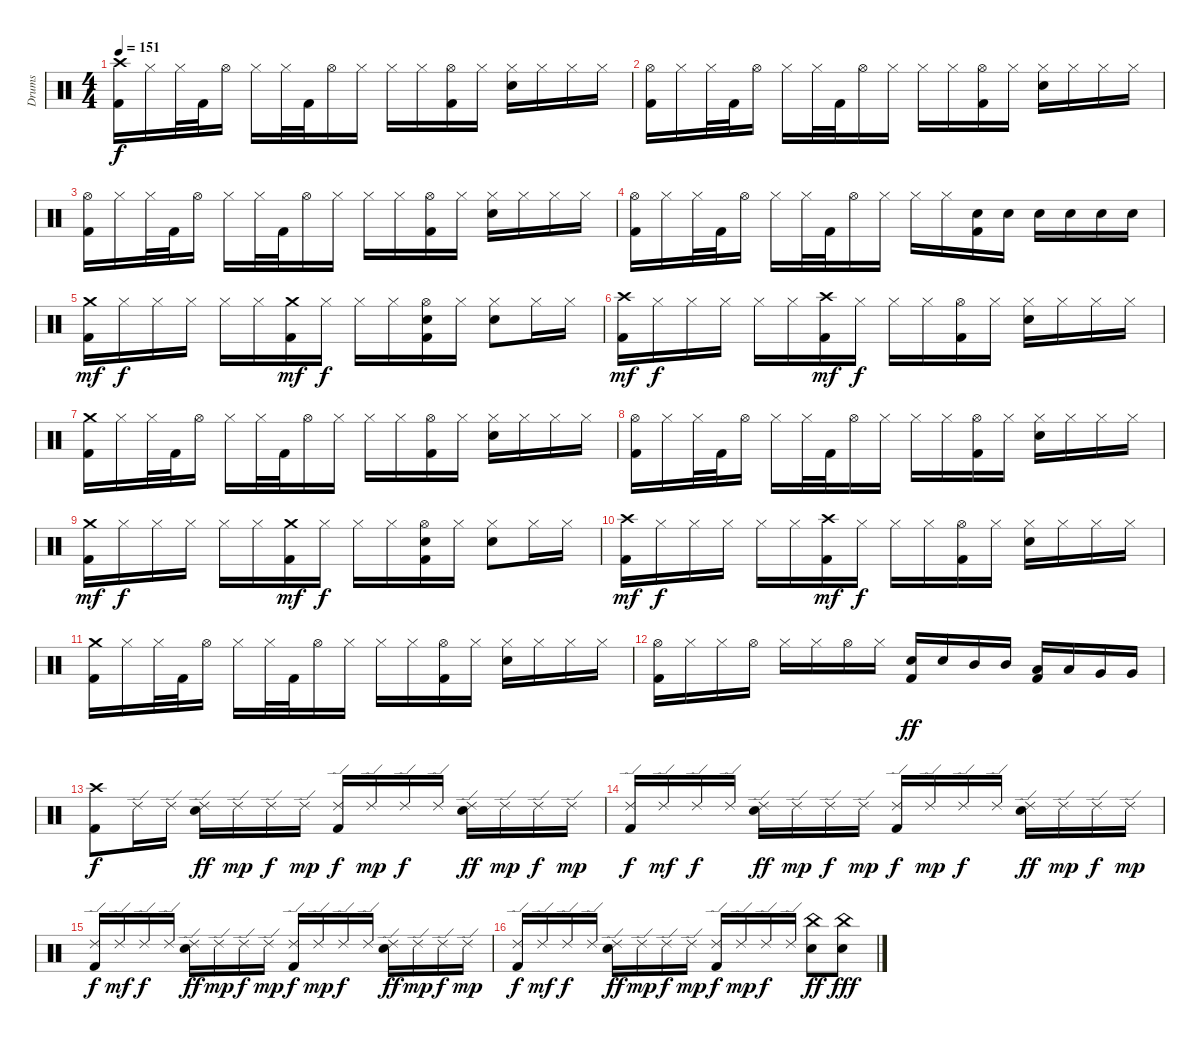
\track ("Drums" "Drums") {instrument percussion}
\staff {score}
\articulation defaults
\ts (4 4)
\tempo 151
\clef neutral
\ks c
("Crash high (hit)" "Kick (hit) 2").16{dy f} "Hi-Hat (closed)".16 "Hi-Hat (closed)".32 "Kick (hit) 2".32 "Hi-Hat (open)".16 "Hi-Hat (closed)".16 "Hi-Hat (closed)".32 "Kick (hit) 2".32 "Hi-Hat (open)".16 "Hi-Hat (closed)".16 "Hi-Hat (closed)".16 "Hi-Hat (closed)".16 ("Hi-Hat (open)" "Kick (hit) 2").16 "Hi-Hat (closed)".16 ("Electric Snare (hit)" "Hi-Hat (closed)").16 "Hi-Hat (closed)".16 "Hi-Hat (closed)".16 "Hi-Hat (closed)".16 |
("Hi-Hat (open)" "Kick (hit) 2").16 "Hi-Hat (closed)".16 "Hi-Hat (closed)".32 "Kick (hit) 2".32 "Hi-Hat (open)".16 "Hi-Hat (closed)".16 "Hi-Hat (closed)".32 "Kick (hit) 2".32 "Hi-Hat (open)".16 "Hi-Hat (closed)".16 "Hi-Hat (closed)".16 "Hi-Hat (closed)".16 ("Hi-Hat (open)" "Kick (hit) 2").16 "Hi-Hat (closed)".16 ("Electric Snare (hit)" "Hi-Hat (closed)").16 "Hi-Hat (closed)".16 "Hi-Hat (closed)".16 "Hi-Hat (closed)".16 |
("Hi-Hat (open)" "Kick (hit) 2").16 "Hi-Hat (closed)".16 "Hi-Hat (closed)".32 "Kick (hit) 2".32 "Hi-Hat (open)".16 "Hi-Hat (closed)".16 "Hi-Hat (closed)".32 "Kick (hit) 2".32 "Hi-Hat (open)".16 "Hi-Hat (closed)".16 "Hi-Hat (closed)".16 "Hi-Hat (closed)".16 ("Hi-Hat (open)" "Kick (hit) 2").16 "Hi-Hat (closed)".16 ("Electric Snare (hit)" "Hi-Hat (closed)").16 "Hi-Hat (closed)".16 "Hi-Hat (closed)".16 "Hi-Hat (closed)".16 |
("Hi-Hat (open)" "Kick (hit) 2").16 "Hi-Hat (closed)".16 "Hi-Hat (closed)".32 "Kick (hit) 2".32 "Hi-Hat (open)".16 "Hi-Hat (closed)".16 "Hi-Hat (closed)".32 "Kick (hit) 2".32 "Hi-Hat (open)".16 "Hi-Hat (closed)".16 "Hi-Hat (closed)".16 "Hi-Hat (closed)".16 ("Electric Snare (hit)" "Kick (hit) 2").16 "Electric Snare (hit)".16 "Electric Snare (hit)".16 "Electric Snare (hit)".16 "Electric Snare (hit)".16 "Electric Snare (hit)".16 |
("Crash medium (hit)" "Kick (hit) 2").16{dy mf} "Hi-Hat (closed)".16{dy f} "Hi-Hat (closed)".16 "Hi-Hat (closed)".16 "Hi-Hat (closed)".16 "Hi-Hat (closed)".16 ("Crash medium (hit)" "Kick (hit) 2").16{dy mf} "Hi-Hat (closed)".16{dy f} "Hi-Hat (closed)".16 "Hi-Hat (closed)".16 ("Electric Snare (hit)" "Hi-Hat (open)" "Kick (hit) 2").16 "Hi-Hat (closed)".16 ("Electric Snare (hit)" "Hi-Hat (closed)").8 "Hi-Hat (closed)".16 "Hi-Hat (closed)".16 |
("Crash high (hit)" "Kick (hit) 2").16{dy mf} "Hi-Hat (closed)".16{dy f} "Hi-Hat (closed)".16 "Hi-Hat (closed)".16 "Hi-Hat (closed)".16 "Hi-Hat (closed)".16 ("Crash high (hit)" "Kick (hit) 2").16{dy mf} "Hi-Hat (closed)".16{dy f} "Hi-Hat (closed)".16 "Hi-Hat (closed)".16 ("Hi-Hat (open)" "Kick (hit) 2").16 "Hi-Hat (closed)".16 ("Electric Snare (hit)" "Hi-Hat (closed)").16 "Hi-Hat (closed)".16 "Hi-Hat (closed)".16 "Hi-Hat (closed)".16 |
("Crash medium (hit)" "Kick (hit) 2").16 "Hi-Hat (closed)".16 "Hi-Hat (closed)".32 "Kick (hit) 2".32 "Hi-Hat (open)".16 "Hi-Hat (closed)".16 "Hi-Hat (closed)".32 "Kick (hit) 2".32 "Hi-Hat (open)".16 "Hi-Hat (closed)".16 "Hi-Hat (closed)".16 "Hi-Hat (closed)".16 ("Hi-Hat (open)" "Kick (hit) 2").16 "Hi-Hat (closed)".16 ("Electric Snare (hit)" "Hi-Hat (closed)").16 "Hi-Hat (closed)".16 "Hi-Hat (closed)".16 "Hi-Hat (closed)".16 |
("Hi-Hat (open)" "Kick (hit) 2").16 "Hi-Hat (closed)".16 "Hi-Hat (closed)".32 "Kick (hit) 2".32 "Hi-Hat (open)".16 "Hi-Hat (closed)".16 "Hi-Hat (closed)".32 "Kick (hit) 2".32 "Hi-Hat (open)".16 "Hi-Hat (closed)".16 "Hi-Hat (closed)".16 "Hi-Hat (closed)".16 ("Hi-Hat (open)" "Kick (hit) 2").16 "Hi-Hat (closed)".16 ("Electric Snare (hit)" "Hi-Hat (closed)").16 "Hi-Hat (closed)".16 "Hi-Hat (closed)".16 "Hi-Hat (closed)".16 |
("Crash medium (hit)" "Kick (hit) 2").16{dy mf} "Hi-Hat (closed)".16{dy f} "Hi-Hat (closed)".16 "Hi-Hat (closed)".16 "Hi-Hat (closed)".16 "Hi-Hat (closed)".16 ("Crash medium (hit)" "Kick (hit) 2").16{dy mf} "Hi-Hat (closed)".16{dy f} "Hi-Hat (closed)".16 "Hi-Hat (closed)".16 ("Electric Snare (hit)" "Hi-Hat (open)" "Kick (hit) 2").16 "Hi-Hat (closed)".16 ("Electric Snare (hit)" "Hi-Hat (closed)").8 "Hi-Hat (closed)".16 "Hi-Hat (closed)".16 |
("Crash high (hit)" "Kick (hit) 2").16{dy mf} "Hi-Hat (closed)".16{dy f} "Hi-Hat (closed)".16 "Hi-Hat (closed)".16 "Hi-Hat (closed)".16 "Hi-Hat (closed)".16 ("Crash high (hit)" "Kick (hit) 2").16{dy mf} "Hi-Hat (closed)".16{dy f} "Hi-Hat (closed)".16 "Hi-Hat (closed)".16 ("Hi-Hat (open)" "Kick (hit) 2").16 "Hi-Hat (closed)".16 ("Electric Snare (hit)" "Hi-Hat (closed)").16 "Hi-Hat (closed)".16 "Hi-Hat (closed)".16 "Hi-Hat (closed)".16 |
("Crash medium (hit)" "Kick (hit) 2").16 "Hi-Hat (closed)".16 "Hi-Hat (closed)".32 "Kick (hit) 2".32 "Hi-Hat (open)".16 "Hi-Hat (closed)".16 "Hi-Hat (closed)".32 "Kick (hit) 2".32 "Hi-Hat (open)".16 "Hi-Hat (closed)".16 "Hi-Hat (closed)".16 "Hi-Hat (closed)".16 ("Hi-Hat (open)" "Kick (hit) 2").16 "Hi-Hat (closed)".16 ("Electric Snare (hit)" "Hi-Hat (closed)").16 "Hi-Hat (closed)".16 "Hi-Hat (closed)".16 "Hi-Hat (closed)".16 |
("Hi-Hat (open)" "Kick (hit) 2").16 "Hi-Hat (closed)".16 "Hi-Hat (closed)".16 "Hi-Hat (open)".16 "Hi-Hat (closed)".16 "Hi-Hat (closed)".16 "Hi-Hat (open)".16 "Hi-Hat (closed)".16 ("Electric Snare (hit)" "Kick (hit) 2").16{dy ff} "Electric Snare (hit)".16 "Mid Tom (hit)".16 "Mid Tom (hit)".16 ("Low Tom (hit)" "Kick (hit) 2").16 "Low Tom (hit)".16 "Very Low Tom (hit)".16 "Very Low Tom (hit)".16 |
("Crash high (hit)" "Kick (hit) 2").8{dy f} "Ride (edge) 2".16 "Ride (edge) 2".16 ("Ride (edge) 2" "Electric Snare (hit)").16{dy ff} "Ride (edge) 2".16{dy mp} "Ride (edge) 2".16{dy f} "Ride (edge) 2".16{dy mp} ("Ride (edge) 2" "Kick (hit) 2").16{dy f} "Ride (edge) 2".16{dy mp} "Ride (edge) 2".16{dy f} "Ride (edge) 2".16 ("Ride (edge) 2" "Electric Snare (hit)").16{dy ff} "Ride (edge) 2".16{dy mp} "Ride (edge) 2".16{dy f} "Ride (edge) 2".16{dy mp} |
("Ride (edge) 2" "Kick (hit) 2").16{dy f} "Ride (edge) 2".16{dy mf} "Ride (edge) 2".16{dy f} "Ride (edge) 2".16 ("Ride (edge) 2" "Electric Snare (hit)").16{dy ff} "Ride (edge) 2".16{dy mp} "Ride (edge) 2".16{dy f} "Ride (edge) 2".16{dy mp} ("Ride (edge) 2" "Kick (hit) 2").16{dy f} "Ride (edge) 2".16{dy mp} "Ride (edge) 2".16{dy f} "Ride (edge) 2".16 ("Ride (edge) 2" "Electric Snare (hit)").16{dy ff} "Ride (edge) 2".16{dy mp} "Ride (edge) 2".16{dy f} "Ride (edge) 2".16{dy mp} |
("Ride (edge) 2" "Kick (hit) 2").16{dy f} "Ride (edge) 2".16{dy mf} "Ride (edge) 2".16{dy f} "Ride (edge) 2".16 ("Ride (edge) 2" "Electric Snare (hit)").16{dy ff} "Ride (edge) 2".16{dy mp} "Ride (edge) 2".16{dy f} "Ride (edge) 2".16{dy mp} ("Ride (edge) 2" "Kick (hit) 2").16{dy f} "Ride (edge) 2".16{dy mp} "Ride (edge) 2".16{dy f} "Ride (edge) 2".16 ("Ride (edge) 2" "Electric Snare (hit)").16{dy ff} "Ride (edge) 2".16{dy mp} "Ride (edge) 2".16{dy f} "Ride (edge) 2".16{dy mp} |
("Ride (edge) 2" "Kick (hit) 2").16{dy f} "Ride (edge) 2".16{dy mf} "Ride (edge) 2".16{dy f} "Ride (edge) 2".16 ("Ride (edge) 2" "Electric Snare (hit)").16{dy ff} "Ride (edge) 2".16{dy mp} "Ride (edge) 2".16{dy f} "Ride (edge) 2".16{dy mp} ("Ride (edge) 2" "Kick (hit) 2").16{dy f} "Ride (edge) 2".16{dy mp} "Ride (edge) 2".16{dy f} "Ride (edge) 2".16 ("China (hit)" "Electric Snare (hit)").8{dy ff} ("Electric Snare (hit)" "China (hit)").8{dy fff}
